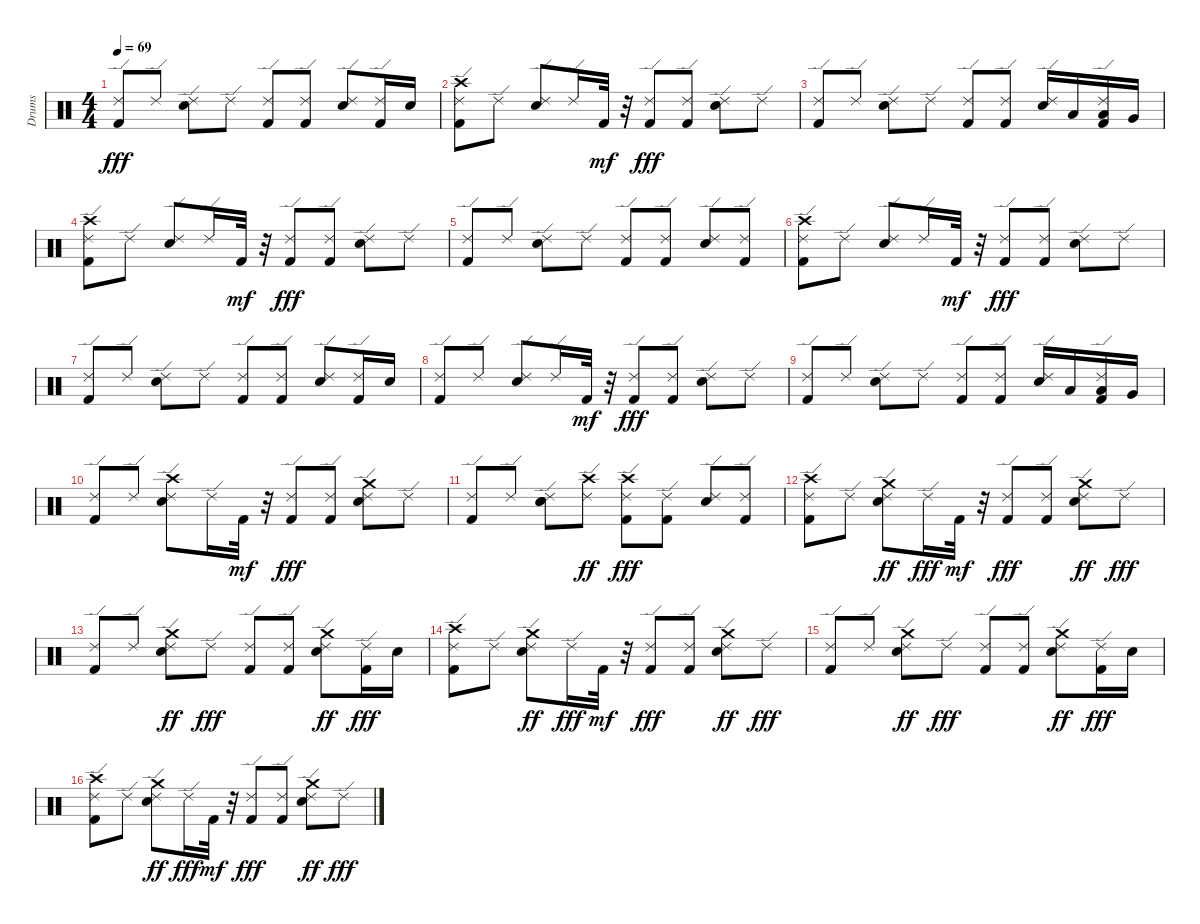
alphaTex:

\track ("Drums" "Drums") {instrument percussion}
\staff {score}
\articulation defaults
\ts (4 4)
\tempo 69
\clef neutral
\ks c
("Kick (hit) 2" "Ride (edge) 2").8{dy fff} "Ride (edge) 2".8 ("Electric Snare (hit)" "Ride (edge) 2").8 "Ride (edge) 2".8 ("Kick (hit) 2" "Ride (edge) 2").8 ("Kick (hit) 2" "Ride (edge) 2").8 ("Electric Snare (hit)" "Ride (edge) 2").8 ("Kick (hit) 2" "Ride (edge) 2").16 "Electric Snare (hit)".16 |
("Kick (hit) 2" "Ride (edge) 2" "Crash high (hit)").8 "Ride (edge) 2".8 ("Electric Snare (hit)" "Ride (edge) 2").8 "Ride (edge) 2".16 "Kick (hit) 2".32{dy mf} r.32 ("Kick (hit) 2" "Ride (edge) 2").8{dy fff} ("Kick (hit) 2" "Ride (edge) 2").8 ("Electric Snare (hit)" "Ride (edge) 2").8 "Ride (edge) 2".8 |
("Kick (hit) 2" "Ride (edge) 2").8 "Ride (edge) 2".8 ("Electric Snare (hit)" "Ride (edge) 2").8 "Ride (edge) 2".8 ("Kick (hit) 2" "Ride (edge) 2").8 ("Kick (hit) 2" "Ride (edge) 2").8 ("Electric Snare (hit)" "Ride (edge) 2").16 "Low Tom (hit)".16 ("Kick (hit) 2" "Low Tom (hit)" "Ride (edge) 2").16 "Very Low Tom (hit)".16 |
("Kick (hit) 2" "Ride (edge) 2" "Crash high (hit)").8 "Ride (edge) 2".8 ("Electric Snare (hit)" "Ride (edge) 2").8 "Ride (edge) 2".16 "Kick (hit) 2".32{dy mf} r.32 ("Kick (hit) 2" "Ride (edge) 2").8{dy fff} ("Kick (hit) 2" "Ride (edge) 2").8 ("Electric Snare (hit)" "Ride (edge) 2").8 "Ride (edge) 2".8 |
("Kick (hit) 2" "Ride (edge) 2").8 "Ride (edge) 2".8 ("Electric Snare (hit)" "Ride (edge) 2").8 "Ride (edge) 2".8 ("Kick (hit) 2" "Ride (edge) 2").8 ("Kick (hit) 2" "Ride (edge) 2").8 ("Electric Snare (hit)" "Ride (edge) 2").8 ("Kick (hit) 2" "Ride (edge) 2").8 |
("Kick (hit) 2" "Ride (edge) 2" "Crash high (hit)").8 "Ride (edge) 2".8 ("Electric Snare (hit)" "Ride (edge) 2").8 "Ride (edge) 2".16 "Kick (hit) 2".32{dy mf} r.32 ("Kick (hit) 2" "Ride (edge) 2").8{dy fff} ("Kick (hit) 2" "Ride (edge) 2").8 ("Electric Snare (hit)" "Ride (edge) 2").8 "Ride (edge) 2".8 |
("Kick (hit) 2" "Ride (edge) 2").8 "Ride (edge) 2".8 ("Electric Snare (hit)" "Ride (edge) 2").8 "Ride (edge) 2".8 ("Kick (hit) 2" "Ride (edge) 2").8 ("Kick (hit) 2" "Ride (edge) 2").8 ("Electric Snare (hit)" "Ride (edge) 2").8 ("Kick (hit) 2" "Ride (edge) 2").16 "Electric Snare (hit)".16 |
("Kick (hit) 2" "Ride (edge) 2").8 "Ride (edge) 2".8 ("Electric Snare (hit)" "Ride (edge) 2").8 "Ride (edge) 2".16 "Kick (hit) 2".32{dy mf} r.32 ("Kick (hit) 2" "Ride (edge) 2").8{dy fff} ("Kick (hit) 2" "Ride (edge) 2").8 ("Electric Snare (hit)" "Ride (edge) 2").8 "Ride (edge) 2".8 |
("Kick (hit) 2" "Ride (edge) 2").8 "Ride (edge) 2".8 ("Electric Snare (hit)" "Ride (edge) 2").8 "Ride (edge) 2".8 ("Kick (hit) 2" "Ride (edge) 2").8 ("Kick (hit) 2" "Ride (edge) 2").8 ("Electric Snare (hit)" "Ride (edge) 2").16 "Low Tom (hit)".16 ("Kick (hit) 2" "Low Tom (hit)" "Ride (edge) 2").16 "Very Low Tom (hit)".16 |
("Kick (hit) 2" "Ride (edge) 2").8 "Ride (edge) 2".8 ("Electric Snare (hit)" "Ride (edge) 2" "Crash high (hit)").8 "Ride (edge) 2".16 "Kick (hit) 2".32{dy mf} r.32 ("Kick (hit) 2" "Ride (edge) 2").8{dy fff} ("Kick (hit) 2" "Ride (edge) 2").8 ("Electric Snare (hit)" "Ride (edge) 2" "Crash medium (hit)").8 "Ride (edge) 2".8 |
("Kick (hit) 2" "Ride (edge) 2").8 "Ride (edge) 2".8 ("Electric Snare (hit)" "Ride (edge) 2" "Snare (hit) 2").8 ("Ride (edge) 2" "Crash high (hit)").8{dy ff} ("Kick (hit) 2" "Ride (edge) 2" "Crash high (hit)").8{dy fff} ("Kick (hit) 2" "Ride (edge) 2").8 ("Electric Snare (hit)" "Ride (edge) 2").8 ("Kick (hit) 2" "Ride (edge) 2").8 |
("Kick (hit) 2" "Ride (edge) 2" "Crash high (hit)").8 "Ride (edge) 2".8 ("Electric Snare (hit)" "Ride (edge) 2" "Crash medium (hit)").8{dy ff} "Ride (edge) 2".16{dy fff} "Kick (hit) 2".32{dy mf} r.32 ("Kick (hit) 2" "Ride (edge) 2").8{dy fff} ("Kick (hit) 2" "Ride (edge) 2").8 ("Electric Snare (hit)" "Ride (edge) 2" "Crash medium (hit)").8{dy ff} "Ride (edge) 2".8{dy fff} |
("Kick (hit) 2" "Ride (edge) 2").8 "Ride (edge) 2".8 ("Electric Snare (hit)" "Ride (edge) 2" "Crash medium (hit)").8{dy ff} "Ride (edge) 2".8{dy fff} ("Kick (hit) 2" "Ride (edge) 2").8 ("Kick (hit) 2" "Ride (edge) 2").8 ("Electric Snare (hit)" "Ride (edge) 2" "Crash medium (hit)").8{dy ff} ("Kick (hit) 2" "Ride (edge) 2").16{dy fff} "Electric Snare (hit)".16 |
("Kick (hit) 2" "Ride (edge) 2" "Crash high (hit)").8 "Ride (edge) 2".8 ("Electric Snare (hit)" "Ride (edge) 2" "Crash medium (hit)").8{dy ff} "Ride (edge) 2".16{dy fff} "Kick (hit) 2".32{dy mf} r.32 ("Kick (hit) 2" "Ride (edge) 2").8{dy fff} ("Kick (hit) 2" "Ride (edge) 2").8 ("Electric Snare (hit)" "Ride (edge) 2" "Crash medium (hit)").8{dy ff} "Ride (edge) 2".8{dy fff} |
("Kick (hit) 2" "Ride (edge) 2").8 "Ride (edge) 2".8 ("Electric Snare (hit)" "Ride (edge) 2" "Crash medium (hit)").8{dy ff} "Ride (edge) 2".8{dy fff} ("Kick (hit) 2" "Ride (edge) 2").8 ("Kick (hit) 2" "Ride (edge) 2").8 ("Electric Snare (hit)" "Ride (edge) 2" "Crash medium (hit)").8{dy ff} ("Kick (hit) 2" "Ride (edge) 2").16{dy fff} "Electric Snare (hit)".16 |
("Kick (hit) 2" "Ride (edge) 2" "Crash high (hit)").8 "Ride (edge) 2".8 ("Electric Snare (hit)" "Ride (edge) 2" "Crash medium (hit)").8{dy ff} "Ride (edge) 2".16{dy fff} "Kick (hit) 2".32{dy mf} r.32 ("Kick (hit) 2" "Ride (edge) 2").8{dy fff} ("Kick (hit) 2" "Ride (edge) 2").8 ("Electric Snare (hit)" "Ride (edge) 2" "Crash medium (hit)").8{dy ff} "Ride (edge) 2".8{dy fff}
